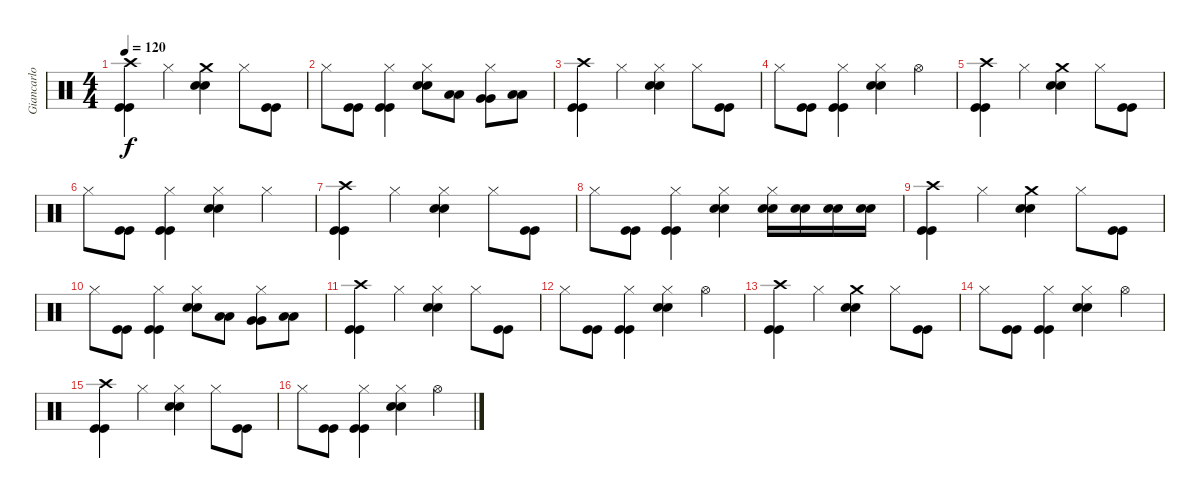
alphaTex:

\track ("Giancarlo Autenzio - Drums" "Giancarlo ") {instrument percussion}
\staff {score}
\articulation defaults
\ts (4 4)
\tempo 120
\clef neutral
\ks c
("Kick (hit)" "Kick (hit)" "Crash high (hit)").4{dy f} "Hi-Hat (closed)".4 ("Electric Snare (hit)" "Electric Snare (hit)" "Crash medium (hit)").4 "Hi-Hat (closed)".8 ("Kick (hit)" "Kick (hit)").8 |
"Hi-Hat (closed)".8 ("Kick (hit)" "Kick (hit)").8 ("Kick (hit)" "Kick (hit)" "Hi-Hat (closed)").4 ("Electric Snare (hit)" "Electric Snare (hit)" "Hi-Hat (closed)").8 ("Low Tom (hit)" "Low Tom (hit)").8 ("Very Low Tom (hit)" "Very Low Tom (hit)" "Hi-Hat (closed)").8 ("Low Floor Tom (hit)" "Low Floor Tom (hit)").8 |
("Kick (hit)" "Kick (hit)" "Crash high (hit)").4 "Hi-Hat (closed)".4 ("Electric Snare (hit)" "Electric Snare (hit)" "Hi-Hat (closed)").4 "Hi-Hat (closed)".8 ("Kick (hit)" "Kick (hit)").8 |
"Hi-Hat (closed)".8 ("Kick (hit)" "Kick (hit)").8 ("Kick (hit)" "Kick (hit)" "Hi-Hat (closed)").4 ("Electric Snare (hit)" "Electric Snare (hit)" "Hi-Hat (closed)").4 "Hi-Hat (open)".4 |
("Kick (hit)" "Kick (hit)" "Crash high (hit)").4 "Hi-Hat (closed)".4 ("Electric Snare (hit)" "Electric Snare (hit)" "Crash medium (hit)").4 "Hi-Hat (closed)".8 ("Kick (hit)" "Kick (hit)").8 |
"Hi-Hat (closed)".8 ("Kick (hit)" "Kick (hit)").8 ("Kick (hit)" "Kick (hit)" "Hi-Hat (closed)").4 ("Electric Snare (hit)" "Electric Snare (hit)" "Hi-Hat (closed)").4 "Hi-Hat (closed)".4 |
("Kick (hit)" "Kick (hit)" "Crash high (hit)").4 "Hi-Hat (closed)".4 ("Electric Snare (hit)" "Electric Snare (hit)" "Hi-Hat (closed)").4 "Hi-Hat (closed)".8 ("Kick (hit)" "Kick (hit)").8 |
"Hi-Hat (closed)".8 ("Kick (hit)" "Kick (hit)").8 ("Kick (hit)" "Kick (hit)" "Hi-Hat (closed)").4 ("Electric Snare (hit)" "Electric Snare (hit)" "Hi-Hat (closed)").4 ("Electric Snare (hit)" "Electric Snare (hit)" "Hi-Hat (closed)").16 ("Electric Snare (hit)" "Electric Snare (hit)").16 ("Electric Snare (hit)" "Electric Snare (hit)").16 ("Electric Snare (hit)" "Electric Snare (hit)").16 |
("Kick (hit)" "Kick (hit)" "Crash high (hit)").4 "Hi-Hat (closed)".4 ("Electric Snare (hit)" "Electric Snare (hit)" "Crash medium (hit)").4 "Hi-Hat (closed)".8 ("Kick (hit)" "Kick (hit)").8 |
"Hi-Hat (closed)".8 ("Kick (hit)" "Kick (hit)").8 ("Kick (hit)" "Kick (hit)" "Hi-Hat (closed)").4 ("Electric Snare (hit)" "Electric Snare (hit)" "Hi-Hat (closed)").8 ("Low Tom (hit)" "Low Tom (hit)").8 ("Very Low Tom (hit)" "Very Low Tom (hit)" "Hi-Hat (closed)").8 ("Low Floor Tom (hit)" "Low Floor Tom (hit)").8 |
("Kick (hit)" "Kick (hit)" "Crash high (hit)").4 "Hi-Hat (closed)".4 ("Electric Snare (hit)" "Electric Snare (hit)" "Hi-Hat (closed)").4 "Hi-Hat (closed)".8 ("Kick (hit)" "Kick (hit)").8 |
"Hi-Hat (closed)".8 ("Kick (hit)" "Kick (hit)").8 ("Kick (hit)" "Kick (hit)" "Hi-Hat (closed)").4 ("Electric Snare (hit)" "Electric Snare (hit)" "Hi-Hat (closed)").4 "Hi-Hat (open)".4 |
("Kick (hit)" "Kick (hit)" "Crash high (hit)").4 "Hi-Hat (closed)".4 ("Electric Snare (hit)" "Electric Snare (hit)" "Crash medium (hit)").4 "Hi-Hat (closed)".8 ("Kick (hit)" "Kick (hit)").8 |
"Hi-Hat (closed)".8 ("Kick (hit)" "Kick (hit)").8 ("Kick (hit)" "Kick (hit)" "Hi-Hat (closed)").4 ("Electric Snare (hit)" "Electric Snare (hit)" "Hi-Hat (closed)").4 "Hi-Hat (open)".4 |
("Kick (hit)" "Kick (hit)" "Crash high (hit)").4 "Hi-Hat (closed)".4 ("Electric Snare (hit)" "Electric Snare (hit)" "Hi-Hat (closed)").4 "Hi-Hat (closed)".8 ("Kick (hit)" "Kick (hit)").8 |
"Hi-Hat (closed)".8 ("Kick (hit)" "Kick (hit)").8 ("Kick (hit)" "Kick (hit)" "Hi-Hat (closed)").4 ("Electric Snare (hit)" "Electric Snare (hit)" "Hi-Hat (closed)").4 "Hi-Hat (open)".4
